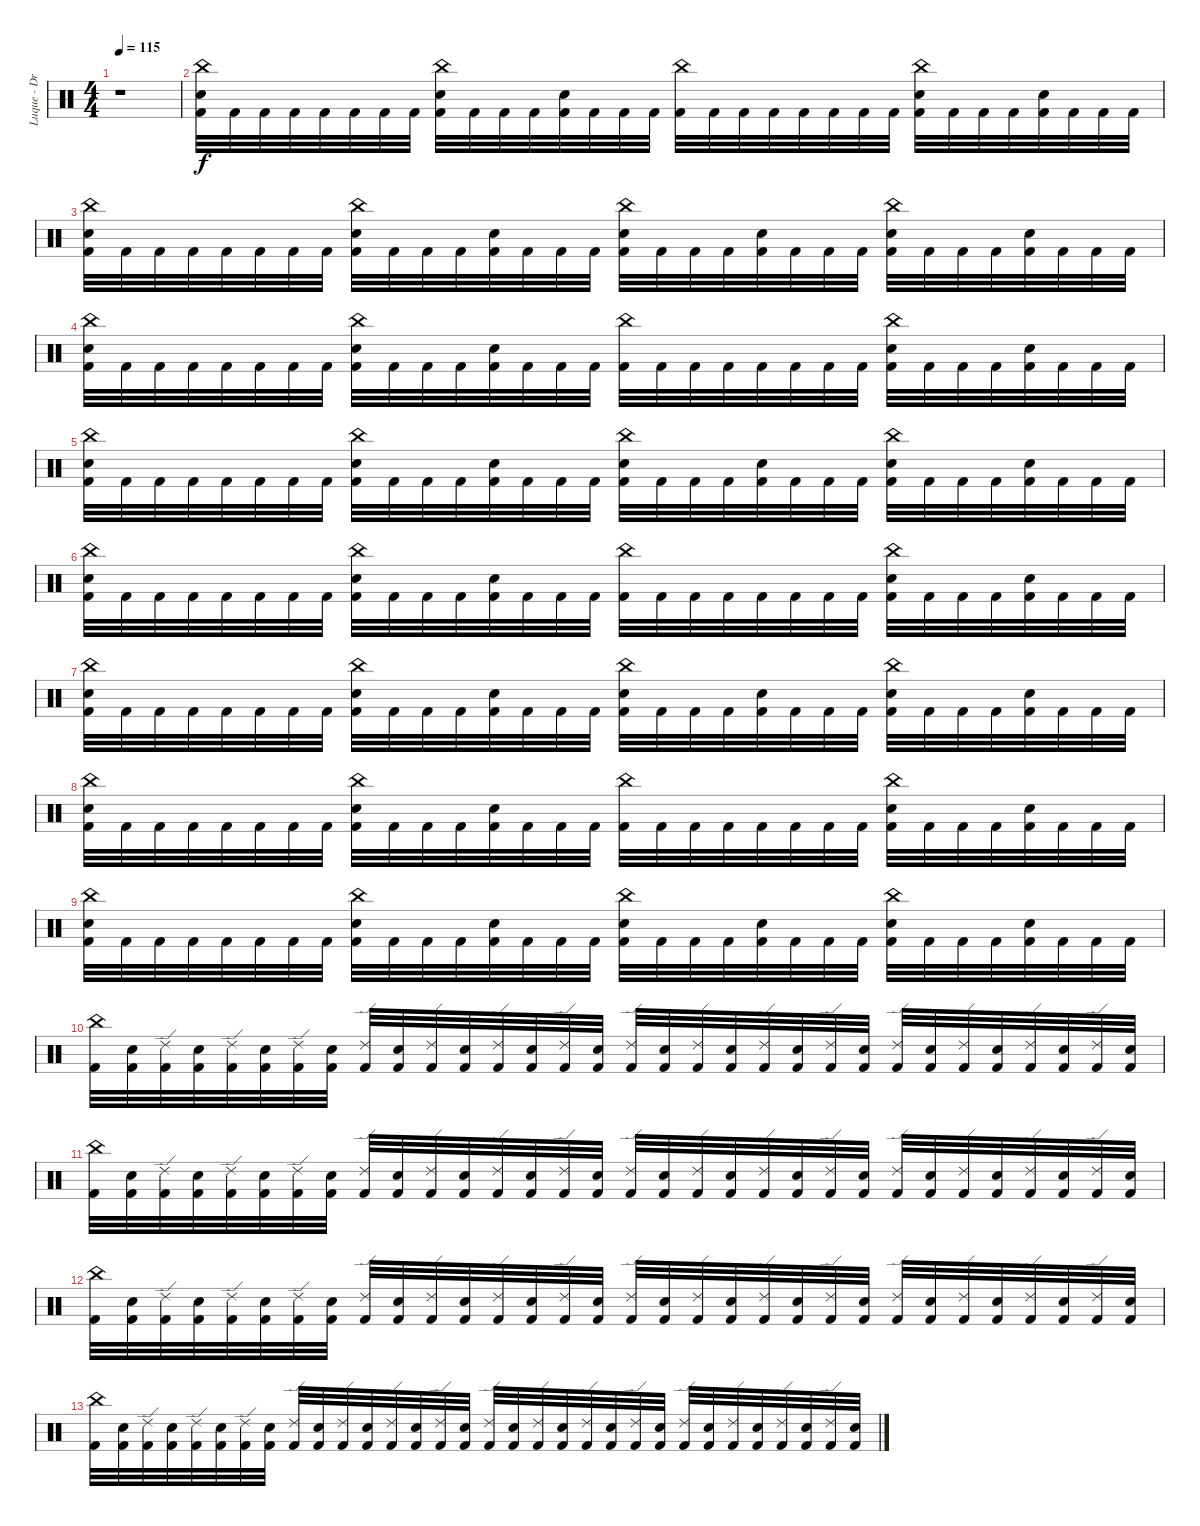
\track ("Luque - Drums" "Luque - Dr") {instrument percussion}
\staff {score}
\articulation defaults
\ts (4 4)
\tempo 115
\clef neutral
\ks c
r.1{dy f} |
("China (hit)" "Electric Snare (hit)" "Kick (hit) 2").32 "Kick (hit) 2".32 "Kick (hit) 2".32 "Kick (hit) 2".32 "Kick (hit) 2".32 "Kick (hit) 2".32 "Kick (hit) 2".32 "Kick (hit) 2".32 ("China (hit)" "Electric Snare (hit)" "Kick (hit) 2").32 "Kick (hit) 2".32 "Kick (hit) 2".32 "Kick (hit) 2".32 ("Electric Snare (hit)" "Kick (hit) 2").32 "Kick (hit) 2".32 "Kick (hit) 2".32 "Kick (hit) 2".32 ("China (hit)" "Kick (hit) 2").32 "Kick (hit) 2".32 "Kick (hit) 2".32 "Kick (hit) 2".32 "Kick (hit) 2".32 "Kick (hit) 2".32 "Kick (hit) 2".32 "Kick (hit) 2".32 ("China (hit)" "Electric Snare (hit)" "Kick (hit) 2").32 "Kick (hit) 2".32 "Kick (hit) 2".32 "Kick (hit) 2".32 ("Electric Snare (hit)" "Kick (hit) 2").32 "Kick (hit) 2".32 "Kick (hit) 2".32 "Kick (hit) 2".32 |
("China (hit)" "Electric Snare (hit)" "Kick (hit) 2").32 "Kick (hit) 2".32 "Kick (hit) 2".32 "Kick (hit) 2".32 "Kick (hit) 2".32 "Kick (hit) 2".32 "Kick (hit) 2".32 "Kick (hit) 2".32 ("China (hit)" "Electric Snare (hit)" "Kick (hit) 2").32 "Kick (hit) 2".32 "Kick (hit) 2".32 "Kick (hit) 2".32 ("Electric Snare (hit)" "Kick (hit) 2").32 "Kick (hit) 2".32 "Kick (hit) 2".32 "Kick (hit) 2".32 ("China (hit)" "Electric Snare (hit)" "Kick (hit) 2").32 "Kick (hit) 2".32 "Kick (hit) 2".32 "Kick (hit) 2".32 ("Electric Snare (hit)" "Kick (hit) 2").32 "Kick (hit) 2".32 "Kick (hit) 2".32 "Kick (hit) 2".32 ("China (hit)" "Electric Snare (hit)" "Kick (hit) 2").32 "Kick (hit) 2".32 "Kick (hit) 2".32 "Kick (hit) 2".32 ("Electric Snare (hit)" "Kick (hit) 2").32 "Kick (hit) 2".32 "Kick (hit) 2".32 "Kick (hit) 2".32 |
("China (hit)" "Electric Snare (hit)" "Kick (hit) 2").32 "Kick (hit) 2".32 "Kick (hit) 2".32 "Kick (hit) 2".32 "Kick (hit) 2".32 "Kick (hit) 2".32 "Kick (hit) 2".32 "Kick (hit) 2".32 ("China (hit)" "Electric Snare (hit)" "Kick (hit) 2").32 "Kick (hit) 2".32 "Kick (hit) 2".32 "Kick (hit) 2".32 ("Electric Snare (hit)" "Kick (hit) 2").32 "Kick (hit) 2".32 "Kick (hit) 2".32 "Kick (hit) 2".32 ("China (hit)" "Kick (hit) 2").32 "Kick (hit) 2".32 "Kick (hit) 2".32 "Kick (hit) 2".32 "Kick (hit) 2".32 "Kick (hit) 2".32 "Kick (hit) 2".32 "Kick (hit) 2".32 ("China (hit)" "Electric Snare (hit)" "Kick (hit) 2").32 "Kick (hit) 2".32 "Kick (hit) 2".32 "Kick (hit) 2".32 ("Electric Snare (hit)" "Kick (hit) 2").32 "Kick (hit) 2".32 "Kick (hit) 2".32 "Kick (hit) 2".32 |
("China (hit)" "Electric Snare (hit)" "Kick (hit) 2").32 "Kick (hit) 2".32 "Kick (hit) 2".32 "Kick (hit) 2".32 "Kick (hit) 2".32 "Kick (hit) 2".32 "Kick (hit) 2".32 "Kick (hit) 2".32 ("China (hit)" "Electric Snare (hit)" "Kick (hit) 2").32 "Kick (hit) 2".32 "Kick (hit) 2".32 "Kick (hit) 2".32 ("Electric Snare (hit)" "Kick (hit) 2").32 "Kick (hit) 2".32 "Kick (hit) 2".32 "Kick (hit) 2".32 ("China (hit)" "Electric Snare (hit)" "Kick (hit) 2").32 "Kick (hit) 2".32 "Kick (hit) 2".32 "Kick (hit) 2".32 ("Electric Snare (hit)" "Kick (hit) 2").32 "Kick (hit) 2".32 "Kick (hit) 2".32 "Kick (hit) 2".32 ("China (hit)" "Electric Snare (hit)" "Kick (hit) 2").32 "Kick (hit) 2".32 "Kick (hit) 2".32 "Kick (hit) 2".32 ("Electric Snare (hit)" "Kick (hit) 2").32 "Kick (hit) 2".32 "Kick (hit) 2".32 "Kick (hit) 2".32 |
("China (hit)" "Electric Snare (hit)" "Kick (hit) 2").32 "Kick (hit) 2".32 "Kick (hit) 2".32 "Kick (hit) 2".32 "Kick (hit) 2".32 "Kick (hit) 2".32 "Kick (hit) 2".32 "Kick (hit) 2".32 ("China (hit)" "Electric Snare (hit)" "Kick (hit) 2").32 "Kick (hit) 2".32 "Kick (hit) 2".32 "Kick (hit) 2".32 ("Electric Snare (hit)" "Kick (hit) 2").32 "Kick (hit) 2".32 "Kick (hit) 2".32 "Kick (hit) 2".32 ("China (hit)" "Kick (hit) 2").32 "Kick (hit) 2".32 "Kick (hit) 2".32 "Kick (hit) 2".32 "Kick (hit) 2".32 "Kick (hit) 2".32 "Kick (hit) 2".32 "Kick (hit) 2".32 ("China (hit)" "Electric Snare (hit)" "Kick (hit) 2").32 "Kick (hit) 2".32 "Kick (hit) 2".32 "Kick (hit) 2".32 ("Electric Snare (hit)" "Kick (hit) 2").32 "Kick (hit) 2".32 "Kick (hit) 2".32 "Kick (hit) 2".32 |
("China (hit)" "Electric Snare (hit)" "Kick (hit) 2").32 "Kick (hit) 2".32 "Kick (hit) 2".32 "Kick (hit) 2".32 "Kick (hit) 2".32 "Kick (hit) 2".32 "Kick (hit) 2".32 "Kick (hit) 2".32 ("China (hit)" "Electric Snare (hit)" "Kick (hit) 2").32 "Kick (hit) 2".32 "Kick (hit) 2".32 "Kick (hit) 2".32 ("Electric Snare (hit)" "Kick (hit) 2").32 "Kick (hit) 2".32 "Kick (hit) 2".32 "Kick (hit) 2".32 ("China (hit)" "Electric Snare (hit)" "Kick (hit) 2").32 "Kick (hit) 2".32 "Kick (hit) 2".32 "Kick (hit) 2".32 ("Electric Snare (hit)" "Kick (hit) 2").32 "Kick (hit) 2".32 "Kick (hit) 2".32 "Kick (hit) 2".32 ("China (hit)" "Electric Snare (hit)" "Kick (hit) 2").32 "Kick (hit) 2".32 "Kick (hit) 2".32 "Kick (hit) 2".32 ("Electric Snare (hit)" "Kick (hit) 2").32 "Kick (hit) 2".32 "Kick (hit) 2".32 "Kick (hit) 2".32 |
("China (hit)" "Electric Snare (hit)" "Kick (hit) 2").32 "Kick (hit) 2".32 "Kick (hit) 2".32 "Kick (hit) 2".32 "Kick (hit) 2".32 "Kick (hit) 2".32 "Kick (hit) 2".32 "Kick (hit) 2".32 ("China (hit)" "Electric Snare (hit)" "Kick (hit) 2").32 "Kick (hit) 2".32 "Kick (hit) 2".32 "Kick (hit) 2".32 ("Electric Snare (hit)" "Kick (hit) 2").32 "Kick (hit) 2".32 "Kick (hit) 2".32 "Kick (hit) 2".32 ("China (hit)" "Kick (hit) 2").32 "Kick (hit) 2".32 "Kick (hit) 2".32 "Kick (hit) 2".32 "Kick (hit) 2".32 "Kick (hit) 2".32 "Kick (hit) 2".32 "Kick (hit) 2".32 ("China (hit)" "Electric Snare (hit)" "Kick (hit) 2").32 "Kick (hit) 2".32 "Kick (hit) 2".32 "Kick (hit) 2".32 ("Electric Snare (hit)" "Kick (hit) 2").32 "Kick (hit) 2".32 "Kick (hit) 2".32 "Kick (hit) 2".32 |
("China (hit)" "Electric Snare (hit)" "Kick (hit) 2").32 "Kick (hit) 2".32 "Kick (hit) 2".32 "Kick (hit) 2".32 "Kick (hit) 2".32 "Kick (hit) 2".32 "Kick (hit) 2".32 "Kick (hit) 2".32 ("China (hit)" "Electric Snare (hit)" "Kick (hit) 2").32 "Kick (hit) 2".32 "Kick (hit) 2".32 "Kick (hit) 2".32 ("Electric Snare (hit)" "Kick (hit) 2").32 "Kick (hit) 2".32 "Kick (hit) 2".32 "Kick (hit) 2".32 ("China (hit)" "Electric Snare (hit)" "Kick (hit) 2").32 "Kick (hit) 2".32 "Kick (hit) 2".32 "Kick (hit) 2".32 ("Electric Snare (hit)" "Kick (hit) 2").32 "Kick (hit) 2".32 "Kick (hit) 2".32 "Kick (hit) 2".32 ("China (hit)" "Electric Snare (hit)" "Kick (hit) 2").32 "Kick (hit) 2".32 "Kick (hit) 2".32 "Kick (hit) 2".32 ("Electric Snare (hit)" "Kick (hit) 2").32 "Kick (hit) 2".32 "Kick (hit) 2".32 "Kick (hit) 2".32 |
("China (hit)" "Kick (hit) 2").32 ("Electric Snare (hit)" "Kick (hit) 2").32 ("Ride (edge) 2" "Kick (hit) 2").32 ("Electric Snare (hit)" "Kick (hit) 2").32 ("Ride (edge) 2" "Kick (hit) 2").32 ("Electric Snare (hit)" "Kick (hit) 2").32 ("Ride (edge) 2" "Kick (hit) 2").32 ("Electric Snare (hit)" "Kick (hit) 2").32 ("Ride (edge) 2" "Kick (hit) 2").32 ("Electric Snare (hit)" "Kick (hit) 2").32 ("Ride (edge) 2" "Kick (hit) 2").32 ("Electric Snare (hit)" "Kick (hit) 2").32 ("Ride (edge) 2" "Kick (hit) 2").32 ("Electric Snare (hit)" "Kick (hit) 2").32 ("Ride (edge) 2" "Kick (hit) 2").32 ("Electric Snare (hit)" "Kick (hit) 2").32 ("Ride (edge) 2" "Kick (hit) 2").32 ("Electric Snare (hit)" "Kick (hit) 2").32 ("Ride (edge) 2" "Kick (hit) 2").32 ("Electric Snare (hit)" "Kick (hit) 2").32 ("Ride (edge) 2" "Kick (hit) 2").32 ("Electric Snare (hit)" "Kick (hit) 2").32 ("Ride (edge) 2" "Kick (hit) 2").32 ("Electric Snare (hit)" "Kick (hit) 2").32 ("Ride (edge) 2" "Kick (hit) 2").32 ("Electric Snare (hit)" "Kick (hit) 2").32 ("Ride (edge) 2" "Kick (hit) 2").32 ("Electric Snare (hit)" "Kick (hit) 2").32 ("Ride (edge) 2" "Kick (hit) 2").32 ("Electric Snare (hit)" "Kick (hit) 2").32 ("Ride (edge) 2" "Kick (hit) 2").32 ("Electric Snare (hit)" "Kick (hit) 2").32 |
("China (hit)" "Kick (hit) 2").32 ("Electric Snare (hit)" "Kick (hit) 2").32 ("Ride (edge) 2" "Kick (hit) 2").32 ("Electric Snare (hit)" "Kick (hit) 2").32 ("Ride (edge) 2" "Kick (hit) 2").32 ("Electric Snare (hit)" "Kick (hit) 2").32 ("Ride (edge) 2" "Kick (hit) 2").32 ("Electric Snare (hit)" "Kick (hit) 2").32 ("Ride (edge) 2" "Kick (hit) 2").32 ("Electric Snare (hit)" "Kick (hit) 2").32 ("Ride (edge) 2" "Kick (hit) 2").32 ("Electric Snare (hit)" "Kick (hit) 2").32 ("Ride (edge) 2" "Kick (hit) 2").32 ("Electric Snare (hit)" "Kick (hit) 2").32 ("Ride (edge) 2" "Kick (hit) 2").32 ("Electric Snare (hit)" "Kick (hit) 2").32 ("Ride (edge) 2" "Kick (hit) 2").32 ("Electric Snare (hit)" "Kick (hit) 2").32 ("Ride (edge) 2" "Kick (hit) 2").32 ("Electric Snare (hit)" "Kick (hit) 2").32 ("Ride (edge) 2" "Kick (hit) 2").32 ("Electric Snare (hit)" "Kick (hit) 2").32 ("Ride (edge) 2" "Kick (hit) 2").32 ("Electric Snare (hit)" "Kick (hit) 2").32 ("Ride (edge) 2" "Kick (hit) 2").32 ("Electric Snare (hit)" "Kick (hit) 2").32 ("Ride (edge) 2" "Kick (hit) 2").32 ("Electric Snare (hit)" "Kick (hit) 2").32 ("Ride (edge) 2" "Kick (hit) 2").32 ("Electric Snare (hit)" "Kick (hit) 2").32 ("Ride (edge) 2" "Kick (hit) 2").32 ("Electric Snare (hit)" "Kick (hit) 2").32 |
("China (hit)" "Kick (hit) 2").32 ("Electric Snare (hit)" "Kick (hit) 2").32 ("Ride (edge) 2" "Kick (hit) 2").32 ("Electric Snare (hit)" "Kick (hit) 2").32 ("Ride (edge) 2" "Kick (hit) 2").32 ("Electric Snare (hit)" "Kick (hit) 2").32 ("Ride (edge) 2" "Kick (hit) 2").32 ("Electric Snare (hit)" "Kick (hit) 2").32 ("Ride (edge) 2" "Kick (hit) 2").32 ("Electric Snare (hit)" "Kick (hit) 2").32 ("Ride (edge) 2" "Kick (hit) 2").32 ("Electric Snare (hit)" "Kick (hit) 2").32 ("Ride (edge) 2" "Kick (hit) 2").32 ("Electric Snare (hit)" "Kick (hit) 2").32 ("Ride (edge) 2" "Kick (hit) 2").32 ("Electric Snare (hit)" "Kick (hit) 2").32 ("Ride (edge) 2" "Kick (hit) 2").32 ("Electric Snare (hit)" "Kick (hit) 2").32 ("Ride (edge) 2" "Kick (hit) 2").32 ("Electric Snare (hit)" "Kick (hit) 2").32 ("Ride (edge) 2" "Kick (hit) 2").32 ("Electric Snare (hit)" "Kick (hit) 2").32 ("Ride (edge) 2" "Kick (hit) 2").32 ("Electric Snare (hit)" "Kick (hit) 2").32 ("Ride (edge) 2" "Kick (hit) 2").32 ("Electric Snare (hit)" "Kick (hit) 2").32 ("Ride (edge) 2" "Kick (hit) 2").32 ("Electric Snare (hit)" "Kick (hit) 2").32 ("Ride (edge) 2" "Kick (hit) 2").32 ("Electric Snare (hit)" "Kick (hit) 2").32 ("Ride (edge) 2" "Kick (hit) 2").32 ("Electric Snare (hit)" "Kick (hit) 2").32 |
("China (hit)" "Kick (hit) 2").32 ("Electric Snare (hit)" "Kick (hit) 2").32 ("Ride (edge) 2" "Kick (hit) 2").32 ("Electric Snare (hit)" "Kick (hit) 2").32 ("Ride (edge) 2" "Kick (hit) 2").32 ("Electric Snare (hit)" "Kick (hit) 2").32 ("Ride (edge) 2" "Kick (hit) 2").32 ("Electric Snare (hit)" "Kick (hit) 2").32 ("Ride (edge) 2" "Kick (hit) 2").32 ("Electric Snare (hit)" "Kick (hit) 2").32 ("Ride (edge) 2" "Kick (hit) 2").32 ("Electric Snare (hit)" "Kick (hit) 2").32 ("Ride (edge) 2" "Kick (hit) 2").32 ("Electric Snare (hit)" "Kick (hit) 2").32 ("Ride (edge) 2" "Kick (hit) 2").32 ("Electric Snare (hit)" "Kick (hit) 2").32 ("Ride (edge) 2" "Kick (hit) 2").32 ("Electric Snare (hit)" "Kick (hit) 2").32 ("Ride (edge) 2" "Kick (hit) 2").32 ("Electric Snare (hit)" "Kick (hit) 2").32 ("Ride (edge) 2" "Kick (hit) 2").32 ("Electric Snare (hit)" "Kick (hit) 2").32 ("Ride (edge) 2" "Kick (hit) 2").32 ("Electric Snare (hit)" "Kick (hit) 2").32 ("Ride (edge) 2" "Kick (hit) 2").32 ("Electric Snare (hit)" "Kick (hit) 2").32 ("Ride (edge) 2" "Kick (hit) 2").32 ("Electric Snare (hit)" "Kick (hit) 2").32 ("Ride (edge) 2" "Kick (hit) 2").32 ("Electric Snare (hit)" "Kick (hit) 2").32 ("Ride (edge) 2" "Kick (hit) 2").32 ("Electric Snare (hit)" "Kick (hit) 2").32
